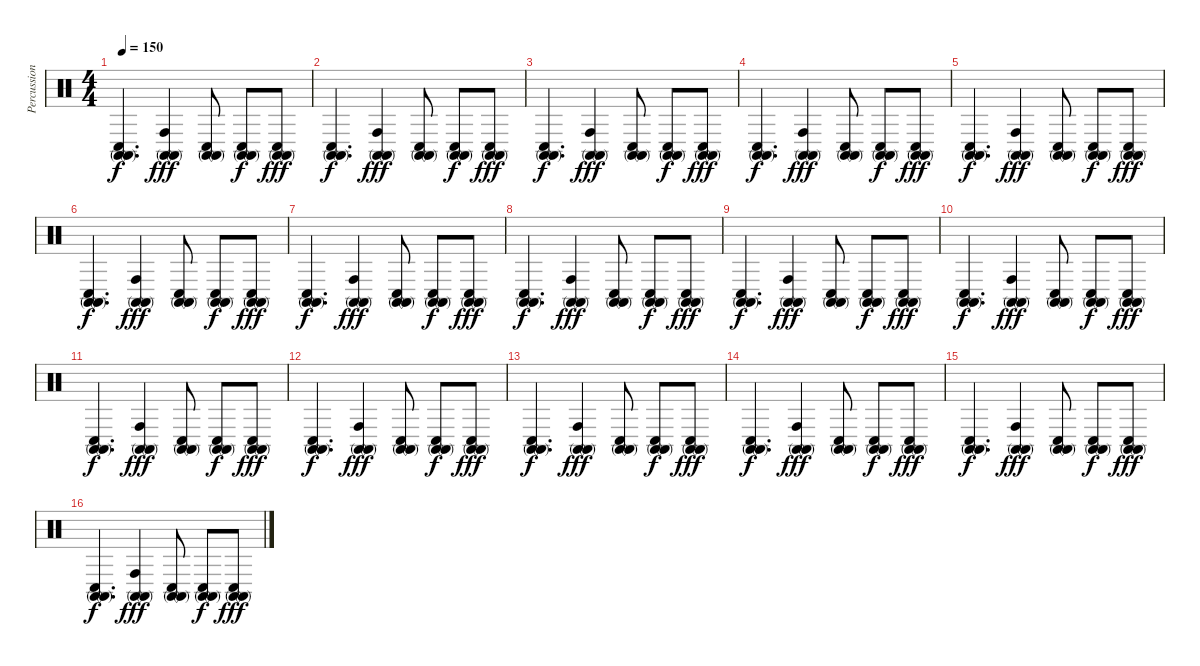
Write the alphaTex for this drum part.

\track ("Percussion2" "Percussion") {instrument percussion}
\staff {score}
\articulation defaults
\ts (4 4)
\tempo 150
\clef neutral
\ks aminor
("Conga high (mute)" "Conga high (mute)" "Conga low (hit)").4{d dy f} ("Conga high (mute)" "Conga high (mute)" "Conga high (hit)").4{dy fff} ("Conga high (mute)" "Conga high (mute)" "Conga low (hit)").8 ("Conga high (mute)" "Conga high (mute)" "Conga low (hit)").8{dy f} ("Conga high (mute)" "Conga high (mute)" "Conga low (hit)").8{dy fff} |
("Conga high (mute)" "Conga high (mute)" "Conga low (hit)").4{d dy f} ("Conga high (mute)" "Conga high (mute)" "Conga high (hit)").4{dy fff} ("Conga high (mute)" "Conga high (mute)" "Conga low (hit)").8 ("Conga high (mute)" "Conga high (mute)" "Conga low (hit)").8{dy f} ("Conga high (mute)" "Conga high (mute)" "Conga low (hit)").8{dy fff} |
("Conga high (mute)" "Conga high (mute)" "Conga low (hit)").4{d dy f} ("Conga high (mute)" "Conga high (mute)" "Conga high (hit)").4{dy fff} ("Conga high (mute)" "Conga high (mute)" "Conga low (hit)").8 ("Conga high (mute)" "Conga high (mute)" "Conga low (hit)").8{dy f} ("Conga high (mute)" "Conga high (mute)" "Conga low (hit)").8{dy fff} |
("Conga high (mute)" "Conga high (mute)" "Conga low (hit)").4{d dy f} ("Conga high (mute)" "Conga high (mute)" "Conga high (hit)").4{dy fff} ("Conga high (mute)" "Conga high (mute)" "Conga low (hit)").8 ("Conga high (mute)" "Conga high (mute)" "Conga low (hit)").8{dy f} ("Conga high (mute)" "Conga high (mute)" "Conga low (hit)").8{dy fff} |
("Conga high (mute)" "Conga high (mute)" "Conga low (hit)").4{d dy f} ("Conga high (mute)" "Conga high (mute)" "Conga high (hit)").4{dy fff} ("Conga high (mute)" "Conga high (mute)" "Conga low (hit)").8 ("Conga high (mute)" "Conga high (mute)" "Conga low (hit)").8{dy f} ("Conga high (mute)" "Conga high (mute)" "Conga low (hit)").8{dy fff} |
("Conga high (mute)" "Conga high (mute)" "Conga low (hit)").4{d dy f} ("Conga high (mute)" "Conga high (mute)" "Conga high (hit)").4{dy fff} ("Conga high (mute)" "Conga high (mute)" "Conga low (hit)").8 ("Conga high (mute)" "Conga high (mute)" "Conga low (hit)").8{dy f} ("Conga high (mute)" "Conga high (mute)" "Conga low (hit)").8{dy fff} |
("Conga high (mute)" "Conga high (mute)" "Conga low (hit)").4{d dy f} ("Conga high (mute)" "Conga high (mute)" "Conga high (hit)").4{dy fff} ("Conga high (mute)" "Conga high (mute)" "Conga low (hit)").8 ("Conga high (mute)" "Conga high (mute)" "Conga low (hit)").8{dy f} ("Conga high (mute)" "Conga high (mute)" "Conga low (hit)").8{dy fff} |
("Conga high (mute)" "Conga high (mute)" "Conga low (hit)").4{d dy f} ("Conga high (mute)" "Conga high (mute)" "Conga high (hit)").4{dy fff} ("Conga high (mute)" "Conga high (mute)" "Conga low (hit)").8 ("Conga high (mute)" "Conga high (mute)" "Conga low (hit)").8{dy f} ("Conga high (mute)" "Conga high (mute)" "Conga low (hit)").8{dy fff} |
("Conga high (mute)" "Conga high (mute)" "Conga low (hit)").4{d dy f} ("Conga high (mute)" "Conga high (mute)" "Conga high (hit)").4{dy fff} ("Conga high (mute)" "Conga high (mute)" "Conga low (hit)").8 ("Conga high (mute)" "Conga high (mute)" "Conga low (hit)").8{dy f} ("Conga high (mute)" "Conga high (mute)" "Conga low (hit)").8{dy fff} |
("Conga high (mute)" "Conga high (mute)" "Conga low (hit)").4{d dy f} ("Conga high (mute)" "Conga high (mute)" "Conga high (hit)").4{dy fff} ("Conga high (mute)" "Conga high (mute)" "Conga low (hit)").8 ("Conga high (mute)" "Conga high (mute)" "Conga low (hit)").8{dy f} ("Conga high (mute)" "Conga high (mute)" "Conga low (hit)").8{dy fff} |
("Conga high (mute)" "Conga high (mute)" "Conga low (hit)").4{d dy f} ("Conga high (mute)" "Conga high (mute)" "Conga high (hit)").4{dy fff} ("Conga high (mute)" "Conga high (mute)" "Conga low (hit)").8 ("Conga high (mute)" "Conga high (mute)" "Conga low (hit)").8{dy f} ("Conga high (mute)" "Conga high (mute)" "Conga low (hit)").8{dy fff} |
("Conga high (mute)" "Conga high (mute)" "Conga low (hit)").4{d dy f} ("Conga high (mute)" "Conga high (mute)" "Conga high (hit)").4{dy fff} ("Conga high (mute)" "Conga high (mute)" "Conga low (hit)").8 ("Conga high (mute)" "Conga high (mute)" "Conga low (hit)").8{dy f} ("Conga high (mute)" "Conga high (mute)" "Conga low (hit)").8{dy fff} |
("Conga high (mute)" "Conga high (mute)" "Conga low (hit)").4{d dy f} ("Conga high (mute)" "Conga high (mute)" "Conga high (hit)").4{dy fff} ("Conga high (mute)" "Conga high (mute)" "Conga low (hit)").8 ("Conga high (mute)" "Conga high (mute)" "Conga low (hit)").8{dy f} ("Conga high (mute)" "Conga high (mute)" "Conga low (hit)").8{dy fff} |
("Conga high (mute)" "Conga high (mute)" "Conga low (hit)").4{d dy f} ("Conga high (mute)" "Conga high (mute)" "Conga high (hit)").4{dy fff} ("Conga high (mute)" "Conga high (mute)" "Conga low (hit)").8 ("Conga high (mute)" "Conga high (mute)" "Conga low (hit)").8{dy f} ("Conga high (mute)" "Conga high (mute)" "Conga low (hit)").8{dy fff} |
("Conga high (mute)" "Conga high (mute)" "Conga low (hit)").4{d dy f} ("Conga high (mute)" "Conga high (mute)" "Conga high (hit)").4{dy fff} ("Conga high (mute)" "Conga high (mute)" "Conga low (hit)").8 ("Conga high (mute)" "Conga high (mute)" "Conga low (hit)").8{dy f} ("Conga high (mute)" "Conga high (mute)" "Conga low (hit)").8{dy fff} |
("Conga high (mute)" "Conga high (mute)" "Conga low (hit)").4{d dy f} ("Conga high (mute)" "Conga high (mute)" "Conga high (hit)").4{dy fff} ("Conga high (mute)" "Conga high (mute)" "Conga low (hit)").8 ("Conga high (mute)" "Conga high (mute)" "Conga low (hit)").8{dy f} ("Conga high (mute)" "Conga high (mute)" "Conga low (hit)").8{dy fff}
